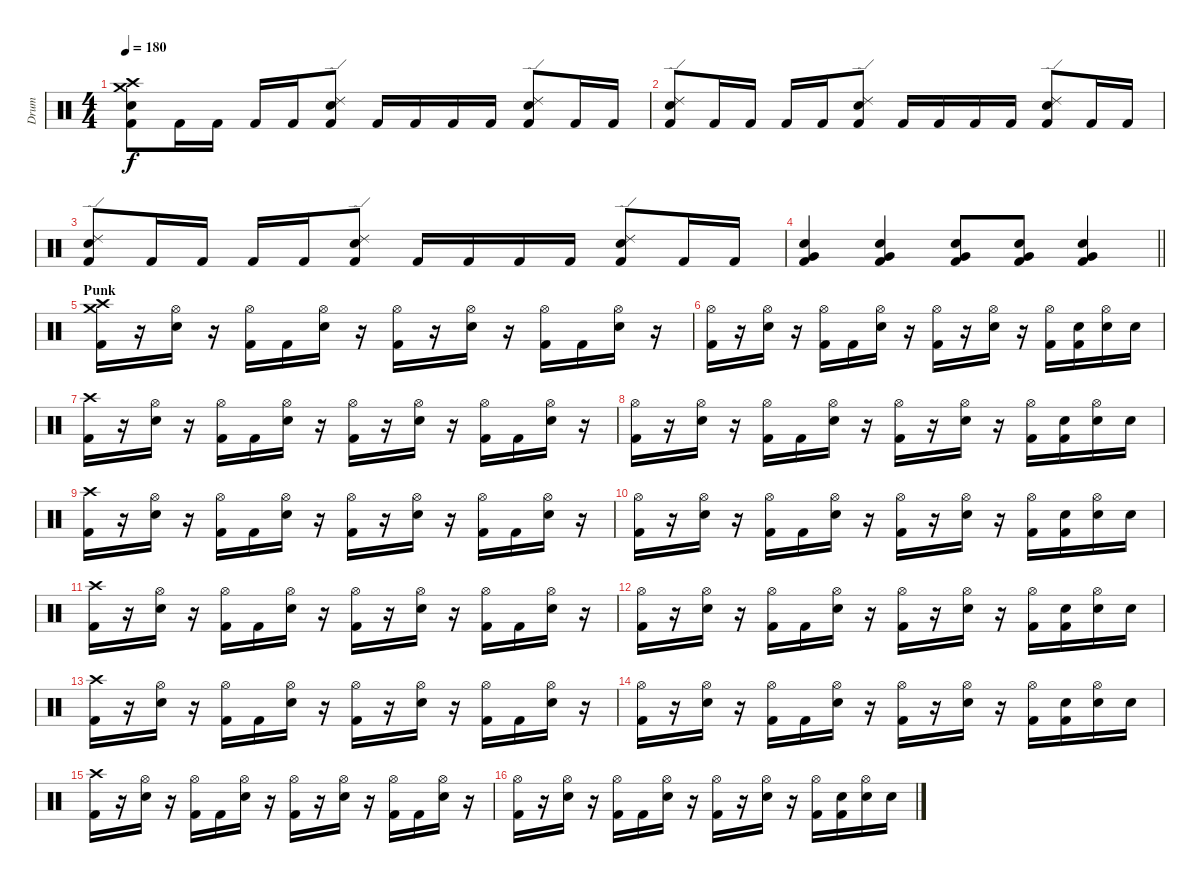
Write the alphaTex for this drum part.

\track ("Drum" "Drum") {instrument percussion}
\staff {score}
\articulation defaults
\ts (4 4)
\tempo 180
\clef neutral
\ks c
("Crash high (hit)" "Crash medium (hit)" "Electric Snare (hit)" "Kick (hit) 2").8{dy f} "Kick (hit) 2".16 "Kick (hit) 2".16 "Kick (hit) 2".16 "Kick (hit) 2".16 ("Ride (edge) 2" "Electric Snare (hit)" "Kick (hit) 2").8 "Kick (hit) 2".16 "Kick (hit) 2".16 "Kick (hit) 2".16 "Kick (hit) 2".16 ("Ride (edge) 2" "Electric Snare (hit)" "Kick (hit) 2").8 "Kick (hit) 2".16 "Kick (hit) 2".16 |
("Ride (edge) 2" "Electric Snare (hit)" "Kick (hit) 2").8 "Kick (hit) 2".16 "Kick (hit) 2".16 "Kick (hit) 2".16 "Kick (hit) 2".16 ("Ride (edge) 2" "Electric Snare (hit)" "Kick (hit) 2").8 "Kick (hit) 2".16 "Kick (hit) 2".16 "Kick (hit) 2".16 "Kick (hit) 2".16 ("Ride (edge) 2" "Electric Snare (hit)" "Kick (hit) 2").8 "Kick (hit) 2".16 "Kick (hit) 2".16 |
("Ride (edge) 2" "Electric Snare (hit)" "Kick (hit) 2").8 "Kick (hit) 2".16 "Kick (hit) 2".16 "Kick (hit) 2".16 "Kick (hit) 2".16 ("Ride (edge) 2" "Electric Snare (hit)" "Kick (hit) 2").8 "Kick (hit) 2".16 "Kick (hit) 2".16 "Kick (hit) 2".16 "Kick (hit) 2".16 ("Ride (edge) 2" "Electric Snare (hit)" "Kick (hit) 2").8 "Kick (hit) 2".16 "Kick (hit) 2".16 |
\barLineRight lightlight
("Very Low Tom (hit)" "Electric Snare (hit)" "Kick (hit) 2").4 ("Very Low Tom (hit)" "Electric Snare (hit)" "Kick (hit) 2").4 ("Very Low Tom (hit)" "Electric Snare (hit)" "Kick (hit) 2").8 ("Very Low Tom (hit)" "Electric Snare (hit)" "Kick (hit) 2").8 ("Very Low Tom (hit)" "Electric Snare (hit)" "Kick (hit) 2").4 |
\section ("" "Punk")
("Crash medium (hit)" "Crash high (hit)" "Kick (hit) 2").16 r.16 ("Hi-Hat (open)" "Electric Snare (hit)").16 r.16 ("Hi-Hat (open)" "Kick (hit) 2").16 "Kick (hit) 2".16 ("Hi-Hat (open)" "Electric Snare (hit)").16 r.16 ("Hi-Hat (open)" "Kick (hit) 2").16 r.16 ("Hi-Hat (open)" "Electric Snare (hit)").16 r.16 ("Hi-Hat (open)" "Kick (hit) 2").16 "Kick (hit) 2".16 ("Hi-Hat (open)" "Electric Snare (hit)").16 r.16 |
("Hi-Hat (open)" "Kick (hit) 2").16 r.16 ("Hi-Hat (open)" "Electric Snare (hit)").16 r.16 ("Hi-Hat (open)" "Kick (hit) 2").16 "Kick (hit) 2".16 ("Hi-Hat (open)" "Electric Snare (hit)").16 r.16 ("Hi-Hat (open)" "Kick (hit) 2").16 r.16 ("Hi-Hat (open)" "Electric Snare (hit)").16 r.16 ("Hi-Hat (open)" "Kick (hit) 2").16 ("Electric Snare (hit)" "Kick (hit) 2").16 ("Hi-Hat (open)" "Electric Snare (hit)").16 "Electric Snare (hit)".16 |
("Crash high (hit)" "Kick (hit) 2").16 r.16 ("Hi-Hat (open)" "Electric Snare (hit)").16 r.16 ("Hi-Hat (open)" "Kick (hit) 2").16 "Kick (hit) 2".16 ("Hi-Hat (open)" "Electric Snare (hit)").16 r.16 ("Hi-Hat (open)" "Kick (hit) 2").16 r.16 ("Hi-Hat (open)" "Electric Snare (hit)").16 r.16 ("Hi-Hat (open)" "Kick (hit) 2").16 "Kick (hit) 2".16 ("Hi-Hat (open)" "Electric Snare (hit)").16 r.16 |
("Hi-Hat (open)" "Kick (hit) 2").16 r.16 ("Hi-Hat (open)" "Electric Snare (hit)").16 r.16 ("Hi-Hat (open)" "Kick (hit) 2").16 "Kick (hit) 2".16 ("Hi-Hat (open)" "Electric Snare (hit)").16 r.16 ("Hi-Hat (open)" "Kick (hit) 2").16 r.16 ("Hi-Hat (open)" "Electric Snare (hit)").16 r.16 ("Hi-Hat (open)" "Kick (hit) 2").16 ("Electric Snare (hit)" "Kick (hit) 2").16 ("Hi-Hat (open)" "Electric Snare (hit)").16 "Electric Snare (hit)".16 |
("Crash high (hit)" "Kick (hit) 2").16 r.16 ("Hi-Hat (open)" "Electric Snare (hit)").16 r.16 ("Hi-Hat (open)" "Kick (hit) 2").16 "Kick (hit) 2".16 ("Hi-Hat (open)" "Electric Snare (hit)").16 r.16 ("Hi-Hat (open)" "Kick (hit) 2").16 r.16 ("Hi-Hat (open)" "Electric Snare (hit)").16 r.16 ("Hi-Hat (open)" "Kick (hit) 2").16 "Kick (hit) 2".16 ("Hi-Hat (open)" "Electric Snare (hit)").16 r.16 |
("Hi-Hat (open)" "Kick (hit) 2").16 r.16 ("Hi-Hat (open)" "Electric Snare (hit)").16 r.16 ("Hi-Hat (open)" "Kick (hit) 2").16 "Kick (hit) 2".16 ("Hi-Hat (open)" "Electric Snare (hit)").16 r.16 ("Hi-Hat (open)" "Kick (hit) 2").16 r.16 ("Hi-Hat (open)" "Electric Snare (hit)").16 r.16 ("Hi-Hat (open)" "Kick (hit) 2").16 ("Electric Snare (hit)" "Kick (hit) 2").16 ("Hi-Hat (open)" "Electric Snare (hit)").16 "Electric Snare (hit)".16 |
("Crash high (hit)" "Kick (hit) 2").16 r.16 ("Hi-Hat (open)" "Electric Snare (hit)").16 r.16 ("Hi-Hat (open)" "Kick (hit) 2").16 "Kick (hit) 2".16 ("Hi-Hat (open)" "Electric Snare (hit)").16 r.16 ("Hi-Hat (open)" "Kick (hit) 2").16 r.16 ("Hi-Hat (open)" "Electric Snare (hit)").16 r.16 ("Hi-Hat (open)" "Kick (hit) 2").16 "Kick (hit) 2".16 ("Hi-Hat (open)" "Electric Snare (hit)").16 r.16 |
("Hi-Hat (open)" "Kick (hit) 2").16 r.16 ("Hi-Hat (open)" "Electric Snare (hit)").16 r.16 ("Hi-Hat (open)" "Kick (hit) 2").16 "Kick (hit) 2".16 ("Hi-Hat (open)" "Electric Snare (hit)").16 r.16 ("Hi-Hat (open)" "Kick (hit) 2").16 r.16 ("Hi-Hat (open)" "Electric Snare (hit)").16 r.16 ("Hi-Hat (open)" "Kick (hit) 2").16 ("Electric Snare (hit)" "Kick (hit) 2").16 ("Hi-Hat (open)" "Electric Snare (hit)").16 "Electric Snare (hit)".16 |
("Crash high (hit)" "Kick (hit) 2").16 r.16 ("Hi-Hat (open)" "Electric Snare (hit)").16 r.16 ("Hi-Hat (open)" "Kick (hit) 2").16 "Kick (hit) 2".16 ("Hi-Hat (open)" "Electric Snare (hit)").16 r.16 ("Hi-Hat (open)" "Kick (hit) 2").16 r.16 ("Hi-Hat (open)" "Electric Snare (hit)").16 r.16 ("Hi-Hat (open)" "Kick (hit) 2").16 "Kick (hit) 2".16 ("Hi-Hat (open)" "Electric Snare (hit)").16 r.16 |
("Hi-Hat (open)" "Kick (hit) 2").16 r.16 ("Hi-Hat (open)" "Electric Snare (hit)").16 r.16 ("Hi-Hat (open)" "Kick (hit) 2").16 "Kick (hit) 2".16 ("Hi-Hat (open)" "Electric Snare (hit)").16 r.16 ("Hi-Hat (open)" "Kick (hit) 2").16 r.16 ("Hi-Hat (open)" "Electric Snare (hit)").16 r.16 ("Hi-Hat (open)" "Kick (hit) 2").16 ("Electric Snare (hit)" "Kick (hit) 2").16 ("Hi-Hat (open)" "Electric Snare (hit)").16 "Electric Snare (hit)".16 |
("Crash high (hit)" "Kick (hit) 2").16 r.16 ("Hi-Hat (open)" "Electric Snare (hit)").16 r.16 ("Hi-Hat (open)" "Kick (hit) 2").16 "Kick (hit) 2".16 ("Hi-Hat (open)" "Electric Snare (hit)").16 r.16 ("Hi-Hat (open)" "Kick (hit) 2").16 r.16 ("Hi-Hat (open)" "Electric Snare (hit)").16 r.16 ("Hi-Hat (open)" "Kick (hit) 2").16 "Kick (hit) 2".16 ("Hi-Hat (open)" "Electric Snare (hit)").16 r.16 |
("Hi-Hat (open)" "Kick (hit) 2").16 r.16 ("Hi-Hat (open)" "Electric Snare (hit)").16 r.16 ("Hi-Hat (open)" "Kick (hit) 2").16 "Kick (hit) 2".16 ("Hi-Hat (open)" "Electric Snare (hit)").16 r.16 ("Hi-Hat (open)" "Kick (hit) 2").16 r.16 ("Hi-Hat (open)" "Electric Snare (hit)").16 r.16 ("Hi-Hat (open)" "Kick (hit) 2").16 ("Electric Snare (hit)" "Kick (hit) 2").16 ("Hi-Hat (open)" "Electric Snare (hit)").16 "Electric Snare (hit)".16
